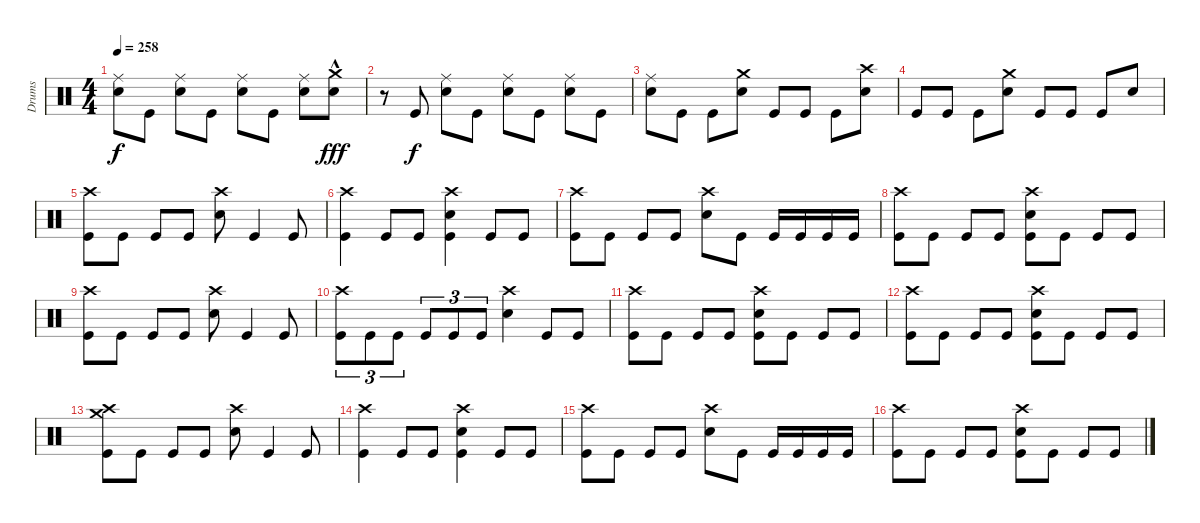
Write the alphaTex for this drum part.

\track ("Drums" "Drums") {instrument percussion}
\staff {score}
\articulation defaults
\ts (4 4)
\tempo 258
\clef neutral
\ks c
("Snare (hit) 2" "Ride (middle)").8{dy f} "Kick (hit)".8 ("Snare (hit) 2" "Ride (middle)").8 "Kick (hit)".8 ("Snare (hit) 2" "Ride (middle)").8 "Kick (hit)".8 ("Snare (hit) 2" "Ride (middle)").8 ("Snare (hit) 2"{hac} "Crash medium (hit)").8{dy fff} |
r.8 "Kick (hit)".8{dy f} ("Snare (hit) 2" "Ride (middle)").8 "Kick (hit)".8 ("Snare (hit) 2" "Ride (middle)").8 "Kick (hit)".8 ("Snare (hit) 2" "Ride (middle)").8 "Kick (hit)".8 |
("Snare (hit) 2" "Ride (middle)").8 "Kick (hit)".8 "Kick (hit)".8 ("Snare (hit) 2" "Crash medium (hit)").8 "Kick (hit)".8 "Kick (hit)".8 "Kick (hit)".8 ("Snare (hit) 2" "Crash high (hit)").8 |
"Kick (hit)".8 "Kick (hit)".8 "Kick (hit)".8 ("Snare (hit) 2" "Crash medium (hit)").8 "Kick (hit)".8 "Kick (hit)".8 "Kick (hit)".8 "Snare (hit) 2".8 |
("Kick (hit)" "Crash high (hit)").8 "Kick (hit)".8 "Kick (hit)".8 "Kick (hit)".8 ("Snare (hit) 2" "Crash high (hit)").8 "Kick (hit)".4 "Kick (hit)".8 |
("Kick (hit)" "Crash high (hit)").4 "Kick (hit)".8 "Kick (hit)".8 ("Snare (hit) 2" "Kick (hit)" "Crash high (hit)").4 "Kick (hit)".8 "Kick (hit)".8 |
("Kick (hit)" "Crash high (hit)").8 "Kick (hit)".8 "Kick (hit)".8 "Kick (hit)".8 ("Snare (hit) 2" "Crash high (hit)").8 "Kick (hit)".8 "Kick (hit)".16 "Kick (hit)".16 "Kick (hit)".16 "Kick (hit)".16 |
("Kick (hit)" "Crash high (hit)").8 "Kick (hit)".8 "Kick (hit)".8 "Kick (hit)".8 ("Snare (hit) 2" "Kick (hit)" "Crash high (hit)").8 "Kick (hit)".8 "Kick (hit)".8 "Kick (hit)".8 |
("Kick (hit)" "Crash high (hit)").8 "Kick (hit)".8 "Kick (hit)".8 "Kick (hit)".8 ("Snare (hit) 2" "Crash high (hit)").8 "Kick (hit)".4 "Kick (hit)".8 |
("Kick (hit)" "Crash high (hit)").8{tu (3 2)} "Kick (hit)".8{tu (3 2)} "Kick (hit)".8{tu (3 2)} "Kick (hit)".8{tu (3 2)} "Kick (hit)".8{tu (3 2)} "Kick (hit)".8{tu (3 2)} ("Snare (hit) 2" "Crash high (hit)").4 "Kick (hit)".8 "Kick (hit)".8 |
("Kick (hit)" "Crash high (hit)").8 "Kick (hit)".8 "Kick (hit)".8 "Kick (hit)".8 ("Snare (hit) 2" "Kick (hit)" "Crash high (hit)").8 "Kick (hit)".8 "Kick (hit)".8 "Kick (hit)".8 |
("Kick (hit)" "Crash high (hit)").8 "Kick (hit)".8 "Kick (hit)".8 "Kick (hit)".8 ("Snare (hit) 2" "Kick (hit)" "Crash high (hit)").8 "Kick (hit)".8 "Kick (hit)".8 "Kick (hit)".8 |
("Crash medium (hit)" "Kick (hit)" "Crash high (hit)").8 "Kick (hit)".8 "Kick (hit)".8 "Kick (hit)".8 ("Snare (hit) 2" "Crash high (hit)").8 "Kick (hit)".4 "Kick (hit)".8 |
("Kick (hit)" "Crash high (hit)").4 "Kick (hit)".8 "Kick (hit)".8 ("Snare (hit) 2" "Kick (hit)" "Crash high (hit)").4 "Kick (hit)".8 "Kick (hit)".8 |
("Kick (hit)" "Crash high (hit)").8 "Kick (hit)".8 "Kick (hit)".8 "Kick (hit)".8 ("Snare (hit) 2" "Crash high (hit)").8 "Kick (hit)".8 "Kick (hit)".16 "Kick (hit)".16 "Kick (hit)".16 "Kick (hit)".16 |
("Kick (hit)" "Crash high (hit)").8 "Kick (hit)".8 "Kick (hit)".8 "Kick (hit)".8 ("Snare (hit) 2" "Kick (hit)" "Crash high (hit)").8 "Kick (hit)".8 "Kick (hit)".8 "Kick (hit)".8
